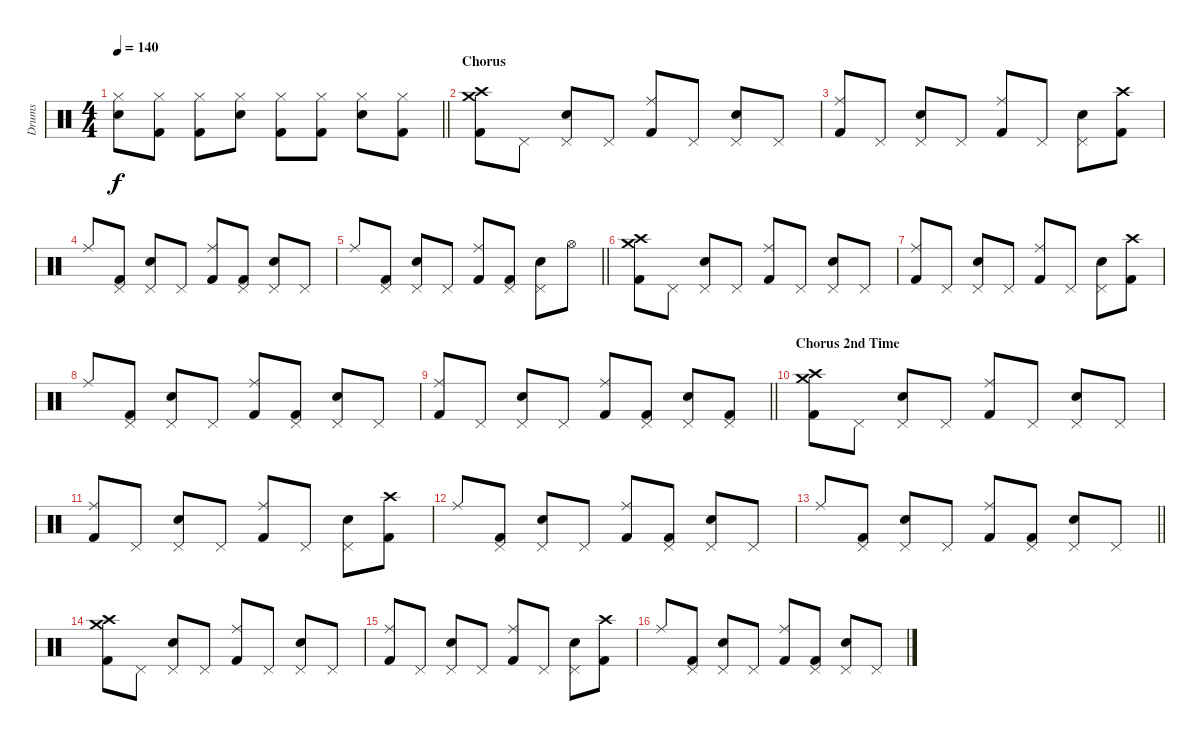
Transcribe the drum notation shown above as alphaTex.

\track ("Drums" "Drums") {instrument percussion}
\staff {score}
\articulation defaults
\ts (4 4)
\tempo 140
\clef neutral
\barLineRight lightlight
\ks c
("Hi-Hat (closed)" "Snare (hit) 2").8{dy f} ("Hi-Hat (closed)" "Kick (hit) 2").8 ("Hi-Hat (closed)" "Kick (hit) 2").8 ("Hi-Hat (closed)" "Snare (hit) 2").8 ("Hi-Hat (closed)" "Kick (hit) 2").8 ("Hi-Hat (closed)" "Kick (hit) 2").8 ("Hi-Hat (closed)" "Snare (hit) 2").8 ("Hi-Hat (closed)" "Kick (hit) 2").8 |
\section ("" "Chorus")
("Crash medium (hit)" "Crash high (hit)" "Kick (hit) 2").8 "Pedal Hi-Hat (hit)".8 ("Pedal Hi-Hat (hit)" "Snare (hit) 2").8 "Pedal Hi-Hat (hit)".8 ("Ride (middle)" "Kick (hit) 2").8 "Pedal Hi-Hat (hit)".8 ("Pedal Hi-Hat (hit)" "Snare (hit) 2").8 "Pedal Hi-Hat (hit)".8 |
("Ride (middle)" "Kick (hit) 2").8 "Pedal Hi-Hat (hit)".8 ("Pedal Hi-Hat (hit)" "Snare (hit) 2").8 "Pedal Hi-Hat (hit)".8 ("Ride (middle)" "Kick (hit) 2").8 "Pedal Hi-Hat (hit)".8 ("Pedal Hi-Hat (hit)" "Snare (hit) 2").8 ("Crash high (hit)" "Kick (hit) 2").8 |
"Ride (middle)".8 ("Pedal Hi-Hat (hit)" "Kick (hit) 2").8 ("Pedal Hi-Hat (hit)" "Snare (hit) 2").8 "Pedal Hi-Hat (hit)".8 ("Ride (middle)" "Kick (hit) 2").8 ("Pedal Hi-Hat (hit)" "Kick (hit) 2").8 ("Pedal Hi-Hat (hit)" "Snare (hit) 2").8 "Pedal Hi-Hat (hit)".8 |
\barLineRight lightlight "Ride (middle)".8
("Pedal Hi-Hat (hit)" "Kick (hit) 2").8 ("Pedal Hi-Hat (hit)" "Snare (hit) 2").8 "Pedal Hi-Hat (hit)".8 ("Ride (middle)" "Kick (hit) 2").8 ("Pedal Hi-Hat (hit)" "Kick (hit) 2").8 ("Pedal Hi-Hat (hit)" "Snare (hit) 2").8 "Hi-Hat (open)".8 |
("Crash medium (hit)" "Crash high (hit)" "Kick (hit) 2").8 "Pedal Hi-Hat (hit)".8 ("Pedal Hi-Hat (hit)" "Snare (hit) 2").8 "Pedal Hi-Hat (hit)".8 ("Ride (middle)" "Kick (hit) 2").8 "Pedal Hi-Hat (hit)".8 ("Pedal Hi-Hat (hit)" "Snare (hit) 2").8 "Pedal Hi-Hat (hit)".8 |
("Ride (middle)" "Kick (hit) 2").8 "Pedal Hi-Hat (hit)".8 ("Pedal Hi-Hat (hit)" "Snare (hit) 2").8 "Pedal Hi-Hat (hit)".8 ("Ride (middle)" "Kick (hit) 2").8 "Pedal Hi-Hat (hit)".8 ("Pedal Hi-Hat (hit)" "Snare (hit) 2").8 ("Crash high (hit)" "Kick (hit) 2").8 |
"Ride (middle)".8 ("Pedal Hi-Hat (hit)" "Kick (hit) 2").8 ("Pedal Hi-Hat (hit)" "Snare (hit) 2").8 "Pedal Hi-Hat (hit)".8 ("Ride (middle)" "Kick (hit) 2").8 ("Pedal Hi-Hat (hit)" "Kick (hit) 2").8 ("Pedal Hi-Hat (hit)" "Snare (hit) 2").8 "Pedal Hi-Hat (hit)".8 |
\barLineRight lightlight
("Ride (middle)" "Kick (hit) 2").8 "Pedal Hi-Hat (hit)".8 ("Pedal Hi-Hat (hit)" "Snare (hit) 2").8 "Pedal Hi-Hat (hit)".8 ("Ride (middle)" "Kick (hit) 2").8 ("Pedal Hi-Hat (hit)" "Kick (hit) 2").8 ("Pedal Hi-Hat (hit)" "Snare (hit) 2").8 ("Pedal Hi-Hat (hit)" "Kick (hit) 2").8 |
\section ("" "Chorus 2nd Time")
("Crash medium (hit)" "Crash high (hit)" "Kick (hit) 2").8 "Pedal Hi-Hat (hit)".8 ("Pedal Hi-Hat (hit)" "Snare (hit) 2").8 "Pedal Hi-Hat (hit)".8 ("Ride (middle)" "Kick (hit) 2").8 "Pedal Hi-Hat (hit)".8 ("Pedal Hi-Hat (hit)" "Snare (hit) 2").8 "Pedal Hi-Hat (hit)".8 |
("Ride (middle)" "Kick (hit) 2").8 "Pedal Hi-Hat (hit)".8 ("Pedal Hi-Hat (hit)" "Snare (hit) 2").8 "Pedal Hi-Hat (hit)".8 ("Ride (middle)" "Kick (hit) 2").8 "Pedal Hi-Hat (hit)".8 ("Pedal Hi-Hat (hit)" "Snare (hit) 2").8 ("Crash high (hit)" "Kick (hit) 2").8 |
"Ride (middle)".8 ("Pedal Hi-Hat (hit)" "Kick (hit) 2").8 ("Pedal Hi-Hat (hit)" "Snare (hit) 2").8 "Pedal Hi-Hat (hit)".8 ("Ride (middle)" "Kick (hit) 2").8 ("Pedal Hi-Hat (hit)" "Kick (hit) 2").8 ("Pedal Hi-Hat (hit)" "Snare (hit) 2").8 "Pedal Hi-Hat (hit)".8 |
\barLineRight lightlight "Ride (middle)".8
("Pedal Hi-Hat (hit)" "Kick (hit) 2").8 ("Pedal Hi-Hat (hit)" "Snare (hit) 2").8 "Pedal Hi-Hat (hit)".8 ("Ride (middle)" "Kick (hit) 2").8 ("Pedal Hi-Hat (hit)" "Kick (hit) 2").8 ("Pedal Hi-Hat (hit)" "Snare (hit) 2").8 "Pedal Hi-Hat (hit)".8 |
("Crash medium (hit)" "Crash high (hit)" "Kick (hit) 2").8 "Pedal Hi-Hat (hit)".8 ("Pedal Hi-Hat (hit)" "Snare (hit) 2").8 "Pedal Hi-Hat (hit)".8 ("Ride (middle)" "Kick (hit) 2").8 "Pedal Hi-Hat (hit)".8 ("Pedal Hi-Hat (hit)" "Snare (hit) 2").8 "Pedal Hi-Hat (hit)".8 |
("Ride (middle)" "Kick (hit) 2").8 "Pedal Hi-Hat (hit)".8 ("Pedal Hi-Hat (hit)" "Snare (hit) 2").8 "Pedal Hi-Hat (hit)".8 ("Ride (middle)" "Kick (hit) 2").8 "Pedal Hi-Hat (hit)".8 ("Pedal Hi-Hat (hit)" "Snare (hit) 2").8 ("Crash high (hit)" "Kick (hit) 2").8 |
"Ride (middle)".8 ("Pedal Hi-Hat (hit)" "Kick (hit) 2").8 ("Pedal Hi-Hat (hit)" "Snare (hit) 2").8 "Pedal Hi-Hat (hit)".8 ("Ride (middle)" "Kick (hit) 2").8 ("Pedal Hi-Hat (hit)" "Kick (hit) 2").8 ("Pedal Hi-Hat (hit)" "Snare (hit) 2").8 "Pedal Hi-Hat (hit)".8
